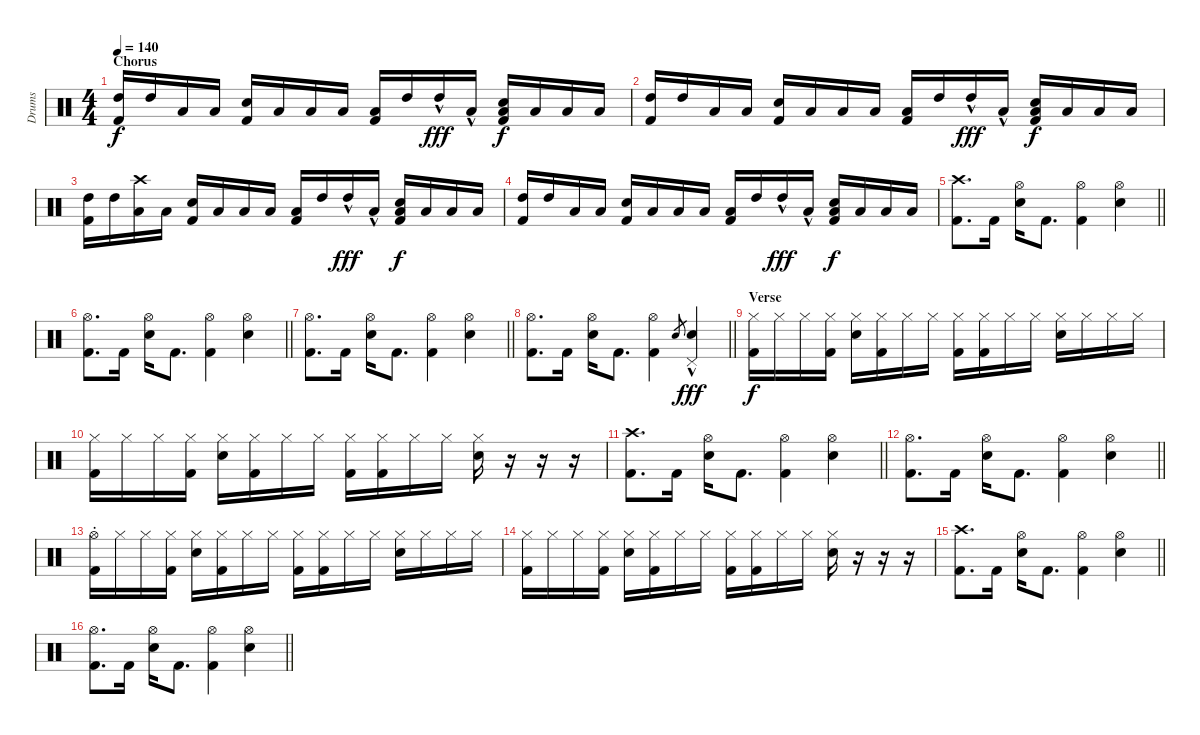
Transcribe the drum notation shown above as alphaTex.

\track ("Drums" "Drums") {instrument percussion}
\staff {score}
\articulation defaults
\ts (4 4)
\section ("" "Chorus")
\tempo 140
\clef neutral
\ks c
("High Tom (hit)" "Kick (hit) 2").16{dy f} "High Tom (hit)".16 "Low Tom (hit)".16 "Low Tom (hit)".16 ("Electric Snare (hit)" "Kick (hit) 2").16 "Low Tom (hit)".16 "Low Tom (hit)".16 "Low Floor Tom (hit)".16 ("Low Floor Tom (hit)" "Kick (hit) 2").16 "High Tom (hit)".16 "High Tom (hit)"{hac}.16{dy fff} "Low Tom (hit)"{hac}.16 ("Electric Snare (hit)" "Low Tom (hit)" "Kick (hit) 2").16{dy f} "Low Tom (hit)".16 "Low Floor Tom (hit)".16 "Low Floor Tom (hit)".16 |
("High Tom (hit)" "Kick (hit) 2").16 "High Tom (hit)".16 "Low Tom (hit)".16 "Low Tom (hit)".16 ("Electric Snare (hit)" "Kick (hit) 2").16 "Low Tom (hit)".16 "Low Tom (hit)".16 "Low Floor Tom (hit)".16 ("Low Floor Tom (hit)" "Kick (hit) 2").16 "High Tom (hit)".16 "High Tom (hit)"{hac}.16{dy fff} "Low Tom (hit)"{hac}.16 ("Electric Snare (hit)" "Low Tom (hit)" "Kick (hit) 2").16{dy f} "Low Tom (hit)".16 "Low Floor Tom (hit)".16 "Low Floor Tom (hit)".16 |
("High Tom (hit)" "Kick (hit) 2").16 "High Tom (hit)".16 ("Crash high (hit)" "Low Tom (hit)").16 "Low Tom (hit)".16 ("Electric Snare (hit)" "Kick (hit) 2").16 "Low Tom (hit)".16 "Low Tom (hit)".16 "Low Floor Tom (hit)".16 ("Low Floor Tom (hit)" "Kick (hit) 2").16 "High Tom (hit)".16 "High Tom (hit)"{hac}.16{dy fff} "Low Tom (hit)"{hac}.16 ("Electric Snare (hit)" "Low Tom (hit)" "Kick (hit) 2").16{dy f} "Low Tom (hit)".16 "Low Floor Tom (hit)".16 "Low Floor Tom (hit)".16 |
("High Tom (hit)" "Kick (hit) 2").16 "High Tom (hit)".16 "Low Tom (hit)".16 "Low Tom (hit)".16 ("Electric Snare (hit)" "Kick (hit) 2").16 "Low Tom (hit)".16 "Low Tom (hit)".16 "Low Floor Tom (hit)".16 ("Low Floor Tom (hit)" "Kick (hit) 2").16 "High Tom (hit)".16 "High Tom (hit)"{hac}.16{dy fff} "Low Tom (hit)"{hac}.16 ("Electric Snare (hit)" "Low Tom (hit)" "Kick (hit) 2").16{dy f} "Low Tom (hit)".16 "Low Floor Tom (hit)".16 "Low Floor Tom (hit)".16 |
\barLineRight lightlight
("Crash high (hit)" "Kick (hit) 2").8{d} "Kick (hit) 2".16 ("Electric Snare (hit)" "Hi-Hat (open)").16 "Kick (hit) 2".8{d} ("Hi-Hat (open)" "Kick (hit) 2").4 ("Hi-Hat (open)" "Snare (hit) 2").4 |
\barLineRight lightlight
("Hi-Hat (open)" "Kick (hit) 2").8{d} "Kick (hit) 2".16 ("Electric Snare (hit)" "Hi-Hat (open)").16 "Kick (hit) 2".8{d} ("Hi-Hat (open)" "Kick (hit) 2").4 ("Hi-Hat (open)" "Snare (hit) 2").4 |
\barLineRight lightlight
("Hi-Hat (open)" "Kick (hit) 2").8{d} "Kick (hit) 2".16 ("Electric Snare (hit)" "Hi-Hat (open)").16 "Kick (hit) 2".8{d} ("Hi-Hat (open)" "Kick (hit) 2").4 ("Hi-Hat (open)" "Snare (hit) 2").4 |
\barLineRight lightlight
("Hi-Hat (open)" "Kick (hit) 2").8{d} "Kick (hit) 2".16 ("Electric Snare (hit)" "Hi-Hat (open)").16 "Kick (hit) 2".8{d} ("Hi-Hat (open)" "Kick (hit) 2").4 "Snare (hit) 2".8{gr} ("Pedal Hi-Hat (hit)" "Snare (hit) 2"{hac}).4{dy fff} |
\section ("" "Verse")
("Hi-Hat (closed)" "Kick (hit) 2").16{dy f} "Hi-Hat (closed)".16 "Hi-Hat (closed)".16 ("Hi-Hat (closed)" "Kick (hit) 2").16 ("Hi-Hat (closed)" "Electric Snare (hit)").16 ("Hi-Hat (closed)" "Kick (hit) 2").16 "Hi-Hat (closed)".16 "Hi-Hat (closed)".16 ("Hi-Hat (closed)" "Kick (hit) 2").16 ("Hi-Hat (closed)" "Kick (hit) 2").16 "Hi-Hat (closed)".16 "Hi-Hat (closed)".16 ("Hi-Hat (closed)" "Electric Snare (hit)").16 "Hi-Hat (closed)".16 "Hi-Hat (closed)".16 "Hi-Hat (closed)".16 |
("Hi-Hat (closed)" "Kick (hit) 2").16 "Hi-Hat (closed)".16 "Hi-Hat (closed)".16 ("Hi-Hat (closed)" "Kick (hit) 2").16 ("Hi-Hat (closed)" "Electric Snare (hit)").16 ("Hi-Hat (closed)" "Kick (hit) 2").16 "Hi-Hat (closed)".16 "Hi-Hat (closed)".16 ("Hi-Hat (closed)" "Kick (hit) 2").16 ("Hi-Hat (closed)" "Kick (hit) 2").16 "Hi-Hat (closed)".16 "Hi-Hat (closed)".16 ("Hi-Hat (closed)" "Electric Snare (hit)").16 r.16 r.16 r.16 |
\barLineRight lightlight
("Crash high (hit)" "Kick (hit) 2").8{d} "Kick (hit) 2".16 ("Electric Snare (hit)" "Hi-Hat (open)").16 "Kick (hit) 2".8{d} ("Hi-Hat (open)" "Kick (hit) 2").4 ("Hi-Hat (open)" "Snare (hit) 2").4 |
\barLineRight lightlight
("Hi-Hat (open)" "Kick (hit) 2").8{d} "Kick (hit) 2".16 ("Electric Snare (hit)" "Hi-Hat (open)").16 "Kick (hit) 2".8{d} ("Hi-Hat (open)" "Kick (hit) 2").4 ("Hi-Hat (open)" "Snare (hit) 2").4 |
("Hi-Hat (open)"{st} "Kick (hit) 2").16 "Hi-Hat (closed)".16 "Hi-Hat (closed)".16 ("Hi-Hat (closed)" "Kick (hit) 2").16 ("Hi-Hat (closed)" "Electric Snare (hit)").16 ("Hi-Hat (closed)" "Kick (hit) 2").16 "Hi-Hat (closed)".16 "Hi-Hat (closed)".16 ("Hi-Hat (closed)" "Kick (hit) 2").16 ("Hi-Hat (closed)" "Kick (hit) 2").16 "Hi-Hat (closed)".16 "Hi-Hat (closed)".16 ("Hi-Hat (closed)" "Electric Snare (hit)").16 "Hi-Hat (closed)".16 "Hi-Hat (closed)".16 "Hi-Hat (closed)".16 |
("Hi-Hat (closed)" "Kick (hit) 2").16 "Hi-Hat (closed)".16 "Hi-Hat (closed)".16 ("Hi-Hat (closed)" "Kick (hit) 2").16 ("Hi-Hat (closed)" "Electric Snare (hit)").16 ("Hi-Hat (closed)" "Kick (hit) 2").16 "Hi-Hat (closed)".16 "Hi-Hat (closed)".16 ("Hi-Hat (closed)" "Kick (hit) 2").16 ("Hi-Hat (closed)" "Kick (hit) 2").16 "Hi-Hat (closed)".16 "Hi-Hat (closed)".16 ("Hi-Hat (closed)" "Electric Snare (hit)").16 r.16 r.16 r.16 |
\barLineRight lightlight
("Crash high (hit)" "Kick (hit) 2").8{d} "Kick (hit) 2".16 ("Electric Snare (hit)" "Hi-Hat (open)").16 "Kick (hit) 2".8{d} ("Hi-Hat (open)" "Kick (hit) 2").4 ("Hi-Hat (open)" "Snare (hit) 2").4 |
\barLineRight lightlight
("Hi-Hat (open)" "Kick (hit) 2").8{d} "Kick (hit) 2".16 ("Electric Snare (hit)" "Hi-Hat (open)").16 "Kick (hit) 2".8{d} ("Hi-Hat (open)" "Kick (hit) 2").4 ("Hi-Hat (open)" "Snare (hit) 2").4
